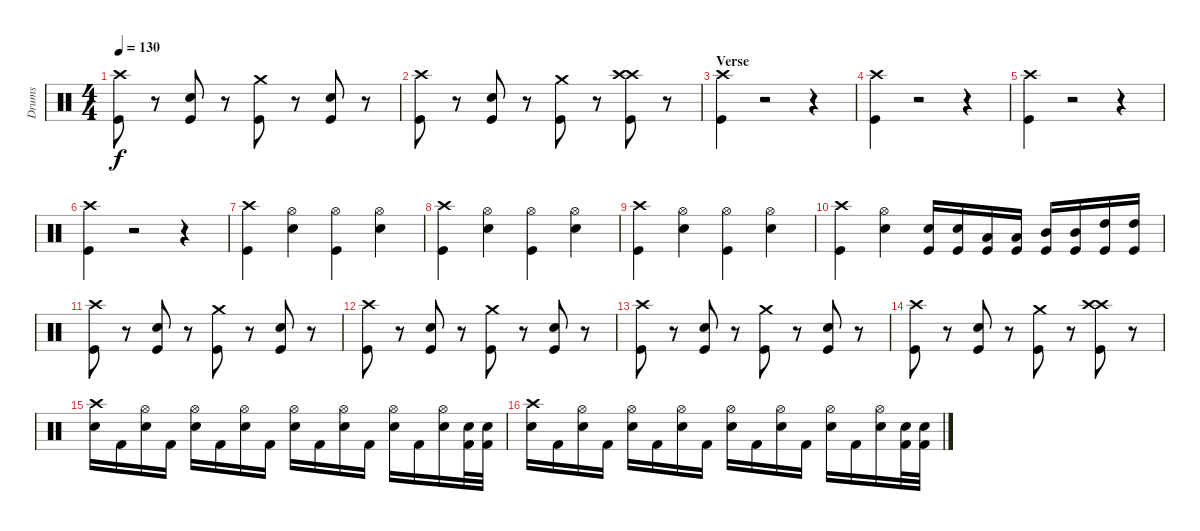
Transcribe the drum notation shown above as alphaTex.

\track ("Drums" "Drums") {instrument percussion}
\staff {score}
\articulation defaults
\ts (4 4)
\tempo 130
\clef neutral
\ks c
("Crash high (hit)" "Kick (hit)").8{dy f} r.8 ("Electric Snare (hit)" "Kick (hit)").8 r.8 ("Crash medium (hit)" "Kick (hit)").8 r.8 ("Electric Snare (hit)" "Kick (hit)").8 r.8 |
("Crash high (hit)" "Kick (hit)").8 r.8 ("Electric Snare (hit)" "Kick (hit)").8 r.8 ("Crash medium (hit)" "Kick (hit)").8 r.8 ("Crash high (hit)" "Crash high (hit)" "Kick (hit)").8 r.8 |
\section ("" "Verse")
("Crash high (hit)" "Kick (hit)").4 r.2 r.4 |
("Crash high (hit)" "Kick (hit)").4 r.2 r.4 |
("Crash high (hit)" "Kick (hit)").4 r.2 r.4 |
("Crash high (hit)" "Kick (hit)").4 r.2 r.4 |
("Crash high (hit)" "Kick (hit)").4 ("Electric Snare (hit)" "Hi-Hat (open)").4 ("Hi-Hat (open)" "Kick (hit)").4 ("Electric Snare (hit)" "Hi-Hat (open)").4 |
("Crash high (hit)" "Kick (hit)").4 ("Electric Snare (hit)" "Hi-Hat (open)").4 ("Hi-Hat (open)" "Kick (hit)").4 ("Electric Snare (hit)" "Hi-Hat (open)").4 |
("Crash high (hit)" "Kick (hit)").4 ("Electric Snare (hit)" "Hi-Hat (open)").4 ("Hi-Hat (open)" "Kick (hit)").4 ("Electric Snare (hit)" "Hi-Hat (open)").4 |
("Crash high (hit)" "Kick (hit)").4 ("Electric Snare (hit)" "Hi-Hat (open)").4 ("Electric Snare (hit)" "Kick (hit)").16 ("Electric Snare (hit)" "Kick (hit)").16 ("Low Tom (hit)" "Kick (hit)").16 ("Low Tom (hit)" "Kick (hit)").16 ("Mid Tom (hit)" "Kick (hit)").16 ("Mid Tom (hit)" "Kick (hit)").16 ("High Tom (hit)" "Kick (hit)").16 ("High Tom (hit)" "Kick (hit)").16 |
("Crash high (hit)" "Kick (hit)").8 r.8 ("Electric Snare (hit)" "Kick (hit)").8 r.8 ("Crash medium (hit)" "Kick (hit)").8 r.8 ("Electric Snare (hit)" "Kick (hit)").8 r.8 |
("Crash high (hit)" "Kick (hit)").8 r.8 ("Electric Snare (hit)" "Kick (hit)").8 r.8 ("Crash medium (hit)" "Kick (hit)").8 r.8 ("Electric Snare (hit)" "Kick (hit)").8 r.8 |
("Crash high (hit)" "Kick (hit)").8 r.8 ("Electric Snare (hit)" "Kick (hit)").8 r.8 ("Crash medium (hit)" "Kick (hit)").8 r.8 ("Electric Snare (hit)" "Kick (hit)").8 r.8 |
("Crash high (hit)" "Kick (hit)").8 r.8 ("Electric Snare (hit)" "Kick (hit)").8 r.8 ("Crash medium (hit)" "Kick (hit)").8 r.8 ("Crash high (hit)" "Crash high (hit)" "Kick (hit)").8 r.8 |
("Crash high (hit)" "Snare (hit) 2").16 "Kick (hit) 2".16 ("Snare (hit) 2" "Hi-Hat (open)").16 "Kick (hit) 2".16 ("Snare (hit) 2" "Hi-Hat (open)").16 "Kick (hit) 2".16 ("Snare (hit) 2" "Hi-Hat (open)").16 "Kick (hit) 2".16 ("Hi-Hat (open)" "Snare (hit) 2").16 "Kick (hit) 2".16 ("Hi-Hat (open)" "Snare (hit) 2").16 "Kick (hit) 2".16 ("Hi-Hat (open)" "Snare (hit) 2").16 "Kick (hit) 2".16 ("Hi-Hat (open)" "Snare (hit) 2").16 ("Electric Snare (hit)" "Kick (hit) 2").32 ("Electric Snare (hit)" "Kick (hit) 2").32 |
("Crash high (hit)" "Snare (hit) 2").16 "Kick (hit) 2".16 ("Snare (hit) 2" "Hi-Hat (open)").16 "Kick (hit) 2".16 ("Snare (hit) 2" "Hi-Hat (open)").16 "Kick (hit) 2".16 ("Snare (hit) 2" "Hi-Hat (open)").16 "Kick (hit) 2".16 ("Hi-Hat (open)" "Snare (hit) 2").16 "Kick (hit) 2".16 ("Hi-Hat (open)" "Snare (hit) 2").16 "Kick (hit) 2".16 ("Hi-Hat (open)" "Snare (hit) 2").16 "Kick (hit) 2".16 ("Hi-Hat (open)" "Snare (hit) 2").16 ("Electric Snare (hit)" "Kick (hit) 2").32 ("Electric Snare (hit)" "Kick (hit) 2").32
